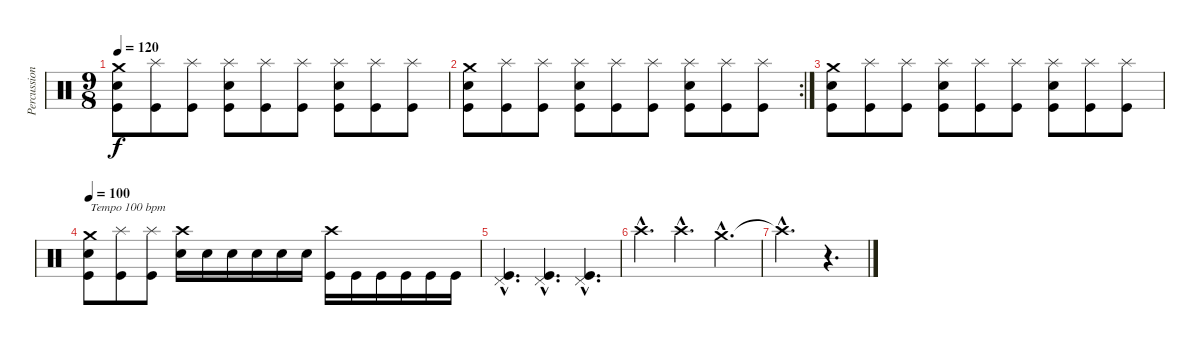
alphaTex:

\track ("Percussion" "Percussion") {instrument percussion}
\staff {score}
\articulation defaults
\ts (9 8)
\tempo 120
\clef neutral
\ks c
("Crash medium (hit)" "Snare (hit) 2" "Kick (hit)").8{dy f} ("Splash (hit)" "Kick (hit)").8 ("Splash (hit)" "Kick (hit)").8 ("Splash (hit)" "Snare (hit) 2" "Kick (hit)").8 ("Splash (hit)" "Kick (hit)").8 ("Splash (hit)" "Kick (hit)").8 ("Splash (hit)" "Snare (hit) 2" "Kick (hit)").8 ("Splash (hit)" "Kick (hit)").8 ("Splash (hit)" "Kick (hit)").8 |
\rc 2
("Crash medium (hit)" "Snare (hit) 2" "Kick (hit)").8 ("Splash (hit)" "Kick (hit)").8 ("Splash (hit)" "Kick (hit)").8 ("Splash (hit)" "Snare (hit) 2" "Kick (hit)").8 ("Splash (hit)" "Kick (hit)").8 ("Splash (hit)" "Kick (hit)").8 ("Splash (hit)" "Snare (hit) 2" "Kick (hit)").8 ("Splash (hit)" "Kick (hit)").8 ("Splash (hit)" "Kick (hit)").8 |
("Crash medium (hit)" "Snare (hit) 2" "Kick (hit)").8 ("Splash (hit)" "Kick (hit)").8 ("Splash (hit)" "Kick (hit)").8 ("Splash (hit)" "Snare (hit) 2" "Kick (hit)").8 ("Splash (hit)" "Kick (hit)").8 ("Splash (hit)" "Kick (hit)").8 ("Splash (hit)" "Snare (hit) 2" "Kick (hit)").8 ("Splash (hit)" "Kick (hit)").8 ("Splash (hit)" "Kick (hit)").8 |
\tempo 100
("Crash medium (hit)" "Snare (hit) 2" "Kick (hit)").8{txt "Tempo 100 bpm"} ("Splash (hit)" "Kick (hit)").8 ("Splash (hit)" "Kick (hit)").8 ("Crash high (hit)" "Snare (hit) 2").16 "Snare (hit) 2".16 "Snare (hit) 2".16 "Snare (hit) 2".16 "Snare (hit) 2".16 "Snare (hit) 2".16 ("Crash high (hit)" "Kick (hit)").16 "Kick (hit)".16 "Kick (hit)".16 "Kick (hit)".16 "Kick (hit)".16 "Kick (hit)".16 |
("Pedal Hi-Hat (hit)"{hac} "Kick (hit)"{hac}).4{d} ("Pedal Hi-Hat (hit)"{hac} "Kick (hit)"{hac}).4{d} ("Pedal Hi-Hat (hit)"{hac} "Kick (hit)"{hac}).4{d} |
"Crash high (hit)"{hac}.4{d} "Crash high (hit)"{hac}.4{d} "Crash medium (hit)"{hac}.4{d} |
"Crash high (hit)"{hac t}.2{d} r.4{d}
